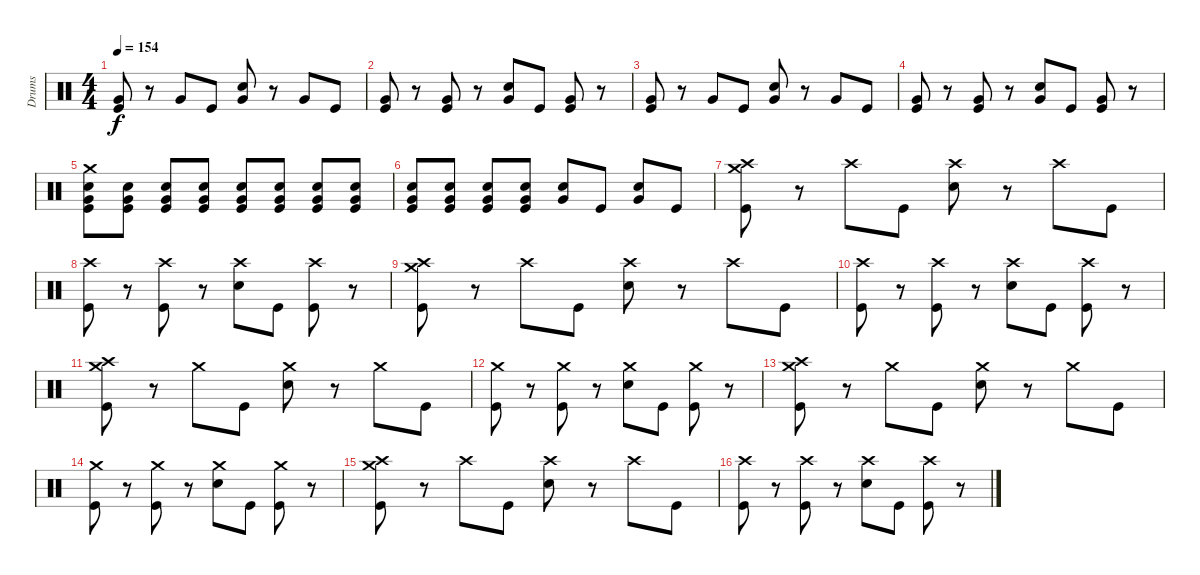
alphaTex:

\track ("Drums" "Drums") {instrument percussion}
\staff {score}
\articulation defaults
\ts (4 4)
\tempo 154
\clef neutral
\ks c
("Very Low Tom (hit)" "Kick (hit)").8{dy f} r.8 "Very Low Tom (hit)".8 "Kick (hit)".8 ("Very Low Tom (hit)" "Electric Snare (hit)").8 r.8 "Very Low Tom (hit)".8 "Kick (hit)".8 |
("Very Low Tom (hit)" "Kick (hit)").8 r.8 ("Very Low Tom (hit)" "Kick (hit)").8 r.8 ("Very Low Tom (hit)" "Electric Snare (hit)").8 "Kick (hit)".8 ("Very Low Tom (hit)" "Kick (hit)").8 r.8 |
("Very Low Tom (hit)" "Kick (hit)").8 r.8 "Very Low Tom (hit)".8 "Kick (hit)".8 ("Very Low Tom (hit)" "Electric Snare (hit)").8 r.8 "Very Low Tom (hit)".8 "Kick (hit)".8 |
("Very Low Tom (hit)" "Kick (hit)").8 r.8 ("Very Low Tom (hit)" "Kick (hit)").8 r.8 ("Very Low Tom (hit)" "Electric Snare (hit)").8 "Kick (hit)".8 ("Very Low Tom (hit)" "Kick (hit)").8 r.8 |
("Crash medium (hit)" "Very Low Tom (hit)" "Electric Snare (hit)" "Kick (hit)").8 ("Very Low Tom (hit)" "Electric Snare (hit)" "Kick (hit)").8 ("Very Low Tom (hit)" "Electric Snare (hit)" "Kick (hit)").8 ("Very Low Tom (hit)" "Electric Snare (hit)" "Kick (hit)").8 ("Very Low Tom (hit)" "Electric Snare (hit)" "Kick (hit)").8 ("Very Low Tom (hit)" "Electric Snare (hit)" "Kick (hit)").8 ("Very Low Tom (hit)" "Electric Snare (hit)" "Kick (hit)").8 ("Very Low Tom (hit)" "Electric Snare (hit)" "Kick (hit)").8 |
("Very Low Tom (hit)" "Electric Snare (hit)" "Kick (hit)").8 ("Very Low Tom (hit)" "Electric Snare (hit)" "Kick (hit)").8 ("Very Low Tom (hit)" "Electric Snare (hit)" "Kick (hit)").8 ("Very Low Tom (hit)" "Electric Snare (hit)" "Kick (hit)").8 ("Very Low Tom (hit)" "Electric Snare (hit)").8 "Kick (hit)".8 ("Very Low Tom (hit)" "Electric Snare (hit)").8 "Kick (hit)".8 |
("Crash medium (hit)" "Crash high (hit)" "Kick (hit)").8 r.8 "Crash high (hit)".8 "Kick (hit)".8 ("Crash high (hit)" "Electric Snare (hit)").8 r.8 "Crash high (hit)".8 "Kick (hit)".8 |
("Crash high (hit)" "Kick (hit)").8 r.8 ("Crash high (hit)" "Kick (hit)").8 r.8 ("Crash high (hit)" "Electric Snare (hit)").8 "Kick (hit)".8 ("Crash high (hit)" "Kick (hit)").8 r.8 |
("Crash medium (hit)" "Crash high (hit)" "Kick (hit)").8 r.8 "Crash high (hit)".8 "Kick (hit)".8 ("Crash high (hit)" "Electric Snare (hit)").8 r.8 "Crash high (hit)".8 "Kick (hit)".8 |
("Crash high (hit)" "Kick (hit)").8 r.8 ("Crash high (hit)" "Kick (hit)").8 r.8 ("Crash high (hit)" "Electric Snare (hit)").8 "Kick (hit)".8 ("Crash high (hit)" "Kick (hit)").8 r.8 |
("Crash high (hit)" "Crash medium (hit)" "Kick (hit)").8 r.8 "Crash medium (hit)".8 "Kick (hit)".8 ("Crash medium (hit)" "Electric Snare (hit)").8 r.8 "Crash medium (hit)".8 "Kick (hit)".8 |
("Crash medium (hit)" "Kick (hit)").8 r.8 ("Crash medium (hit)" "Kick (hit)").8 r.8 ("Crash medium (hit)" "Electric Snare (hit)").8 "Kick (hit)".8 ("Crash medium (hit)" "Kick (hit)").8 r.8 |
("Crash high (hit)" "Crash medium (hit)" "Kick (hit)").8 r.8 "Crash medium (hit)".8 "Kick (hit)".8 ("Crash medium (hit)" "Electric Snare (hit)").8 r.8 "Crash medium (hit)".8 "Kick (hit)".8 |
("Crash medium (hit)" "Kick (hit)").8 r.8 ("Crash medium (hit)" "Kick (hit)").8 r.8 ("Crash medium (hit)" "Electric Snare (hit)").8 "Kick (hit)".8 ("Crash medium (hit)" "Kick (hit)").8 r.8 |
("Crash medium (hit)" "Crash high (hit)" "Kick (hit)").8 r.8 "Crash high (hit)".8 "Kick (hit)".8 ("Crash high (hit)" "Electric Snare (hit)").8 r.8 "Crash high (hit)".8 "Kick (hit)".8 |
("Crash high (hit)" "Kick (hit)").8 r.8 ("Crash high (hit)" "Kick (hit)").8 r.8 ("Crash high (hit)" "Electric Snare (hit)").8 "Kick (hit)".8 ("Crash high (hit)" "Kick (hit)").8 r.8
